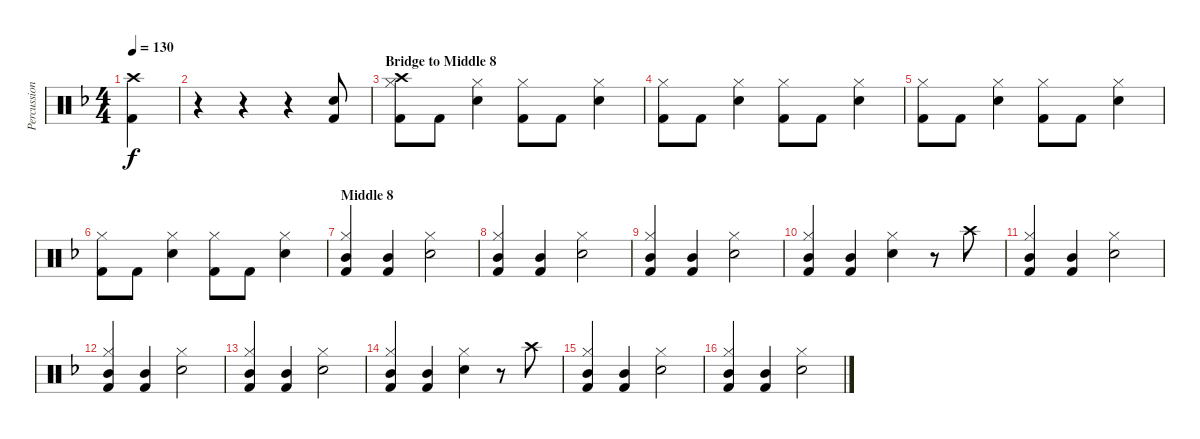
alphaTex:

\track ("Percussion" "Percussion") {instrument percussion}
\staff {score}
\articulation defaults
\ts (4 4)
\tempo 130
\clef neutral
\ks dminor
("Crash high (hit)" "Kick (hit) 2").4{dy f} |
r.4 r.4 r.4 ("Snare (hit) 2" "Kick (hit) 2").8 |
\section ("" "Bridge to Middle 8")
("Crash high (hit)" "Hi-Hat (closed)" "Kick (hit) 2").8 "Kick (hit) 2".8 ("Hi-Hat (closed)" "Snare (hit) 2").4 ("Hi-Hat (closed)" "Kick (hit) 2").8 "Kick (hit) 2".8 ("Hi-Hat (closed)" "Snare (hit) 2").4 |
("Hi-Hat (closed)" "Kick (hit) 2").8 "Kick (hit) 2".8 ("Hi-Hat (closed)" "Snare (hit) 2").4 ("Hi-Hat (closed)" "Kick (hit) 2").8 "Kick (hit) 2".8 ("Hi-Hat (closed)" "Snare (hit) 2").4 |
("Hi-Hat (closed)" "Kick (hit) 2").8 "Kick (hit) 2".8 ("Hi-Hat (closed)" "Snare (hit) 2").4 ("Hi-Hat (closed)" "Kick (hit) 2").8 "Kick (hit) 2".8 ("Hi-Hat (closed)" "Snare (hit) 2").4 |
("Hi-Hat (closed)" "Kick (hit) 2").8 "Kick (hit) 2".8 ("Hi-Hat (closed)" "Snare (hit) 2").4 ("Hi-Hat (closed)" "Kick (hit) 2").8 "Kick (hit) 2".8 ("Hi-Hat (closed)" "Snare (hit) 2").4 |
\section ("" "Middle 8")
("Hi-Hat (closed)" "Mid Tom (hit)" "Kick (hit) 2").4 ("Mid Tom (hit)" "Kick (hit) 2").4 ("Hi-Hat (closed)" "Snare (hit) 2").2 |
("Hi-Hat (closed)" "Mid Tom (hit)" "Kick (hit) 2").4 ("Mid Tom (hit)" "Kick (hit) 2").4 ("Hi-Hat (closed)" "Snare (hit) 2").2 |
("Hi-Hat (closed)" "Mid Tom (hit)" "Kick (hit) 2").4 ("Mid Tom (hit)" "Kick (hit) 2").4 ("Hi-Hat (closed)" "Snare (hit) 2").2 |
("Hi-Hat (closed)" "Mid Tom (hit)" "Kick (hit) 2").4 ("Mid Tom (hit)" "Kick (hit) 2").4 ("Hi-Hat (closed)" "Snare (hit) 2").4 r.8 "Crash high (hit)".8 |
("Hi-Hat (closed)" "Mid Tom (hit)" "Kick (hit) 2").4 ("Mid Tom (hit)" "Kick (hit) 2").4 ("Hi-Hat (closed)" "Snare (hit) 2").2 |
("Hi-Hat (closed)" "Mid Tom (hit)" "Kick (hit) 2").4 ("Mid Tom (hit)" "Kick (hit) 2").4 ("Hi-Hat (closed)" "Snare (hit) 2").2 |
("Hi-Hat (closed)" "Mid Tom (hit)" "Kick (hit) 2").4 ("Mid Tom (hit)" "Kick (hit) 2").4 ("Hi-Hat (closed)" "Snare (hit) 2").2 |
("Hi-Hat (closed)" "Mid Tom (hit)" "Kick (hit) 2").4 ("Mid Tom (hit)" "Kick (hit) 2").4 ("Hi-Hat (closed)" "Snare (hit) 2").4 r.8 "Crash high (hit)".8 |
("Hi-Hat (closed)" "Mid Tom (hit)" "Kick (hit) 2").4 ("Mid Tom (hit)" "Kick (hit) 2").4 ("Hi-Hat (closed)" "Snare (hit) 2").2 |
("Hi-Hat (closed)" "Mid Tom (hit)" "Kick (hit) 2").4 ("Mid Tom (hit)" "Kick (hit) 2").4 ("Hi-Hat (closed)" "Snare (hit) 2").2
